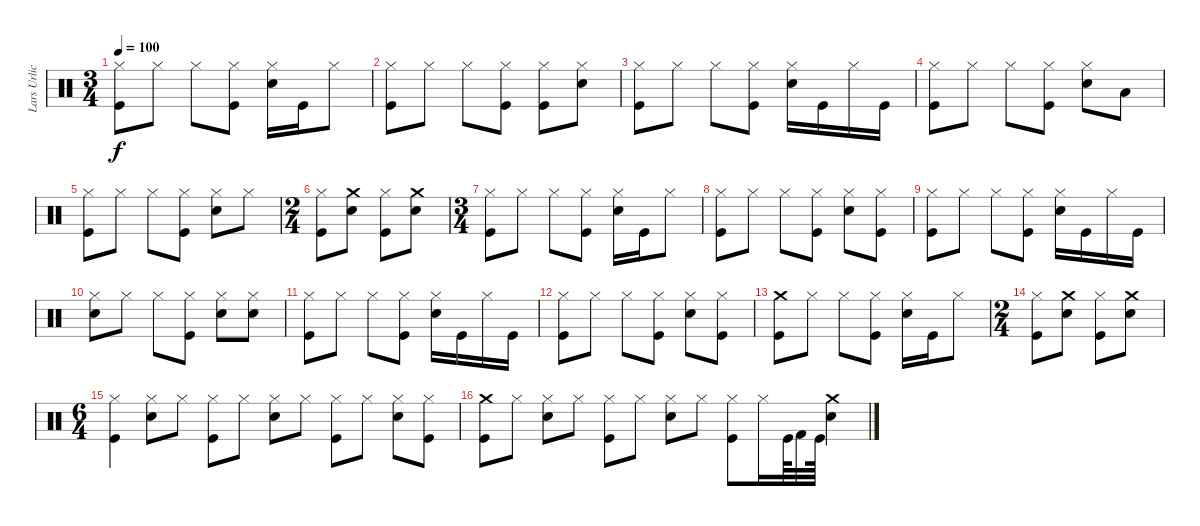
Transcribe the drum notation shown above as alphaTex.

\track ("Lars Urlich" "Lars Urlic") {instrument percussion}
\staff {score}
\articulation defaults
\ts (3 4)
\tempo 100
\clef neutral
\ks c
("Hi-Hat (closed)" "Kick (hit)").8{dy f} "Hi-Hat (closed)".8 "Hi-Hat (closed)".8 ("Hi-Hat (closed)" "Kick (hit)").8 ("Snare (hit) 2" "Hi-Hat (closed)").16 "Kick (hit)".16 "Hi-Hat (closed)".8 |
("Hi-Hat (closed)" "Kick (hit)").8 "Hi-Hat (closed)".8 "Hi-Hat (closed)".8 ("Kick (hit)" "Hi-Hat (closed)").8 ("Hi-Hat (closed)" "Kick (hit)").8 ("Snare (hit) 2" "Hi-Hat (closed)").8 |
("Kick (hit)" "Hi-Hat (closed)").8 "Hi-Hat (closed)".8 "Hi-Hat (closed)".8 ("Kick (hit)" "Hi-Hat (closed)").8 ("Snare (hit) 2" "Hi-Hat (closed)").16 "Kick (hit)".16 "Hi-Hat (closed)".16 "Kick (hit)".16 |
("Hi-Hat (closed)" "Kick (hit)").8 "Hi-Hat (closed)".8 "Hi-Hat (closed)".8 ("Hi-Hat (closed)" "Kick (hit)").8 ("Snare (hit) 2" "Hi-Hat (closed)").8 "Low Tom (hit)".8 |
("Hi-Hat (closed)" "Kick (hit)").8 "Hi-Hat (closed)".8 "Hi-Hat (closed)".8 ("Kick (hit)" "Hi-Hat (closed)").8 ("Snare (hit) 2" "Hi-Hat (closed)").8 "Hi-Hat (closed)".8 |
\ts (2 4)
("Hi-Hat (closed)" "Kick (hit)").8 ("Snare (hit) 2" "Crash medium (hit)").8 ("Hi-Hat (closed)" "Kick (hit)").8 ("Crash medium (hit)" "Snare (hit) 2").8 |
\ts (3 4)
("Hi-Hat (closed)" "Kick (hit)").8 "Hi-Hat (closed)".8 "Hi-Hat (closed)".8 ("Hi-Hat (closed)" "Kick (hit)").8 ("Snare (hit) 2" "Hi-Hat (closed)").16 "Kick (hit)".16 "Hi-Hat (closed)".8 |
("Hi-Hat (closed)" "Kick (hit)").8 "Hi-Hat (closed)".8 "Hi-Hat (closed)".8 ("Kick (hit)" "Hi-Hat (closed)").8 ("Hi-Hat (closed)" "Snare (hit) 2").8 ("Kick (hit)" "Hi-Hat (closed)").8 |
("Hi-Hat (closed)" "Kick (hit)").8 "Hi-Hat (closed)".8 "Hi-Hat (closed)".8 ("Hi-Hat (closed)" "Kick (hit)").8 ("Snare (hit) 2" "Hi-Hat (closed)").16 "Kick (hit)".16 "Hi-Hat (closed)".16 "Kick (hit)".16 |
("Hi-Hat (closed)" "Snare (hit) 2").8 "Hi-Hat (closed)".8 "Hi-Hat (closed)".8 ("Kick (hit)" "Hi-Hat (closed)").8 ("Hi-Hat (closed)" "Snare (hit) 2").8 ("Snare (hit) 2" "Hi-Hat (closed)").8 |
("Hi-Hat (closed)" "Kick (hit)").8 "Hi-Hat (closed)".8 "Hi-Hat (closed)".8 ("Kick (hit)" "Hi-Hat (closed)").8 ("Hi-Hat (closed)" "Snare (hit) 2").16 "Kick (hit)".16 "Hi-Hat (closed)".16 "Kick (hit)".16 |
("Hi-Hat (closed)" "Kick (hit)").8 "Hi-Hat (closed)".8 "Hi-Hat (closed)".8 ("Hi-Hat (closed)" "Kick (hit)").8 ("Snare (hit) 2" "Hi-Hat (closed)").8 ("Hi-Hat (closed)" "Kick (hit)").8 |
("Crash medium (hit)" "Kick (hit)").8 "Hi-Hat (closed)".8 "Hi-Hat (closed)".8 ("Kick (hit)" "Hi-Hat (closed)").8 ("Hi-Hat (closed)" "Snare (hit) 2").16 "Kick (hit)".16 "Hi-Hat (closed)".8 |
\ts (2 4)
("Hi-Hat (closed)" "Kick (hit)").8 ("Crash medium (hit)" "Snare (hit) 2").8 ("Hi-Hat (closed)" "Kick (hit)").8 ("Crash medium (hit)" "Snare (hit) 2").8 |
\ts (6 4)
("Hi-Hat (closed)" "Kick (hit)").4 ("Hi-Hat (closed)" "Snare (hit) 2").8 "Hi-Hat (closed)".8 ("Hi-Hat (closed)" "Kick (hit)").8 "Hi-Hat (closed)".8 ("Snare (hit) 2" "Hi-Hat (closed)").8 "Hi-Hat (closed)".8 ("Hi-Hat (closed)" "Kick (hit)").8 "Hi-Hat (closed)".8 ("Snare (hit) 2" "Hi-Hat (closed)").8 ("Hi-Hat (closed)" "Kick (hit)").8 |
("Kick (hit)" "Crash medium (hit)").8 "Hi-Hat (closed)".8 ("Hi-Hat (closed)" "Snare (hit) 2").8 "Hi-Hat (closed)".8 ("Hi-Hat (closed)" "Kick (hit)").8 "Hi-Hat (closed)".8 ("Snare (hit) 2" "Hi-Hat (closed)").8 "Hi-Hat (closed)".8 ("Hi-Hat (closed)" "Kick (hit)").8 "Hi-Hat (closed)".16 "Kick (hit)".64 "Kick (hit) 2".32 "Kick (hit)".64 ("Crash medium (hit)" "Snare (hit) 2").4
